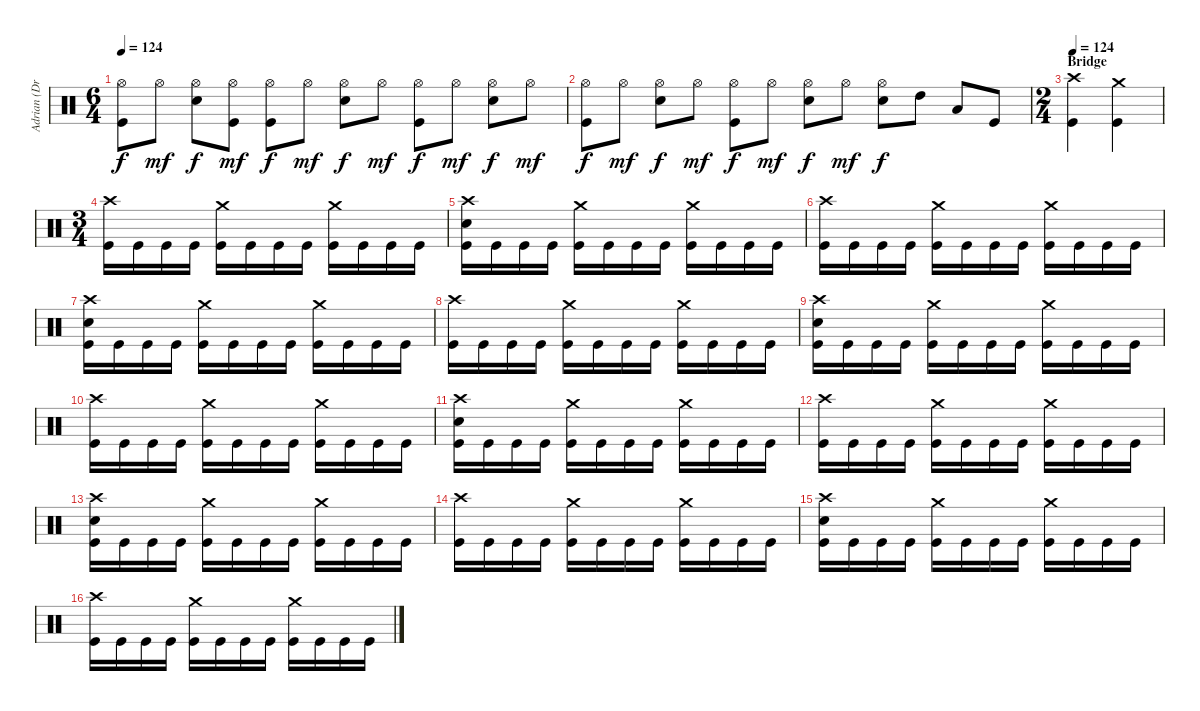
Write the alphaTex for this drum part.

\track ("Adrian (Drums)" "Adrian (Dr") {instrument percussion}
\staff {score}
\articulation defaults
\ts (6 4)
\tempo 124
\clef neutral
\ks c
("Hi-Hat (open)" "Kick (hit)").8{dy f} "Hi-Hat (open)".8{dy mf} ("Hi-Hat (open)" "Electric Snare (hit)").8{dy f} ("Hi-Hat (open)" "Kick (hit)").8{dy mf} ("Hi-Hat (open)" "Kick (hit)").8{dy f} "Hi-Hat (open)".8{dy mf} ("Hi-Hat (open)" "Electric Snare (hit)").8{dy f} "Hi-Hat (open)".8{dy mf} ("Hi-Hat (open)" "Kick (hit)").8{dy f} "Hi-Hat (open)".8{dy mf} ("Hi-Hat (open)" "Electric Snare (hit)").8{dy f} "Hi-Hat (open)".8{dy mf} |
("Hi-Hat (open)" "Kick (hit)").8{dy f} "Hi-Hat (open)".8{dy mf} ("Hi-Hat (open)" "Electric Snare (hit)").8{dy f} "Hi-Hat (open)".8{dy mf} ("Hi-Hat (open)" "Kick (hit)").8{dy f} "Hi-Hat (open)".8{dy mf} ("Hi-Hat (open)" "Electric Snare (hit)").8{dy f} "Hi-Hat (open)".8{dy mf} ("Hi-Hat (open)" "Electric Snare (hit)").8{dy f} "High Tom (hit)".8 "Low Tom (hit)".8 "Kick (hit)".8 |
\ts (2 4)
\section ("" "Bridge")
\tempo 124
("Crash high (hit)" "Kick (hit)").4 ("Crash medium (hit)" "Kick (hit)").4 |
\ts (3 4)
("Crash high (hit)" "Kick (hit)").16 "Kick (hit)".16 "Kick (hit)".16 "Kick (hit)".16 ("Crash medium (hit)" "Kick (hit)").16 "Kick (hit)".16 "Kick (hit)".16 "Kick (hit)".16 ("Crash medium (hit)" "Kick (hit)").16 "Kick (hit)".16 "Kick (hit)".16 "Kick (hit)".16 |
("Crash high (hit)" "Electric Snare (hit)" "Kick (hit)").16 "Kick (hit)".16 "Kick (hit)".16 "Kick (hit)".16 ("Crash medium (hit)" "Kick (hit)").16 "Kick (hit)".16 "Kick (hit)".16 "Kick (hit)".16 ("Crash medium (hit)" "Kick (hit)").16 "Kick (hit)".16 "Kick (hit)".16 "Kick (hit)".16 |
("Crash high (hit)" "Kick (hit)").16 "Kick (hit)".16 "Kick (hit)".16 "Kick (hit)".16 ("Crash medium (hit)" "Kick (hit)").16 "Kick (hit)".16 "Kick (hit)".16 "Kick (hit)".16 ("Crash medium (hit)" "Kick (hit)").16 "Kick (hit)".16 "Kick (hit)".16 "Kick (hit)".16 |
("Crash high (hit)" "Electric Snare (hit)" "Kick (hit)").16 "Kick (hit)".16 "Kick (hit)".16 "Kick (hit)".16 ("Crash medium (hit)" "Kick (hit)").16 "Kick (hit)".16 "Kick (hit)".16 "Kick (hit)".16 ("Crash medium (hit)" "Kick (hit)").16 "Kick (hit)".16 "Kick (hit)".16 "Kick (hit)".16 |
("Crash high (hit)" "Kick (hit)").16 "Kick (hit)".16 "Kick (hit)".16 "Kick (hit)".16 ("Crash medium (hit)" "Kick (hit)").16 "Kick (hit)".16 "Kick (hit)".16 "Kick (hit)".16 ("Crash medium (hit)" "Kick (hit)").16 "Kick (hit)".16 "Kick (hit)".16 "Kick (hit)".16 |
("Crash high (hit)" "Electric Snare (hit)" "Kick (hit)").16 "Kick (hit)".16 "Kick (hit)".16 "Kick (hit)".16 ("Crash medium (hit)" "Kick (hit)").16 "Kick (hit)".16 "Kick (hit)".16 "Kick (hit)".16 ("Crash medium (hit)" "Kick (hit)").16 "Kick (hit)".16 "Kick (hit)".16 "Kick (hit)".16 |
("Crash high (hit)" "Kick (hit)").16 "Kick (hit)".16 "Kick (hit)".16 "Kick (hit)".16 ("Crash medium (hit)" "Kick (hit)").16 "Kick (hit)".16 "Kick (hit)".16 "Kick (hit)".16 ("Crash medium (hit)" "Kick (hit)").16 "Kick (hit)".16 "Kick (hit)".16 "Kick (hit)".16 |
("Crash high (hit)" "Electric Snare (hit)" "Kick (hit)").16 "Kick (hit)".16 "Kick (hit)".16 "Kick (hit)".16 ("Crash medium (hit)" "Kick (hit)").16 "Kick (hit)".16 "Kick (hit)".16 "Kick (hit)".16 ("Crash medium (hit)" "Kick (hit)").16 "Kick (hit)".16 "Kick (hit)".16 "Kick (hit)".16 |
("Crash high (hit)" "Kick (hit)").16 "Kick (hit)".16 "Kick (hit)".16 "Kick (hit)".16 ("Crash medium (hit)" "Kick (hit)").16 "Kick (hit)".16 "Kick (hit)".16 "Kick (hit)".16 ("Crash medium (hit)" "Kick (hit)").16 "Kick (hit)".16 "Kick (hit)".16 "Kick (hit)".16 |
("Crash high (hit)" "Electric Snare (hit)" "Kick (hit)").16 "Kick (hit)".16 "Kick (hit)".16 "Kick (hit)".16 ("Crash medium (hit)" "Kick (hit)").16 "Kick (hit)".16 "Kick (hit)".16 "Kick (hit)".16 ("Crash medium (hit)" "Kick (hit)").16 "Kick (hit)".16 "Kick (hit)".16 "Kick (hit)".16 |
("Crash high (hit)" "Kick (hit)").16 "Kick (hit)".16 "Kick (hit)".16 "Kick (hit)".16 ("Crash medium (hit)" "Kick (hit)").16 "Kick (hit)".16 "Kick (hit)".16 "Kick (hit)".16 ("Crash medium (hit)" "Kick (hit)").16 "Kick (hit)".16 "Kick (hit)".16 "Kick (hit)".16 |
("Crash high (hit)" "Electric Snare (hit)" "Kick (hit)").16 "Kick (hit)".16 "Kick (hit)".16 "Kick (hit)".16 ("Crash medium (hit)" "Kick (hit)").16 "Kick (hit)".16 "Kick (hit)".16 "Kick (hit)".16 ("Crash medium (hit)" "Kick (hit)").16 "Kick (hit)".16 "Kick (hit)".16 "Kick (hit)".16 |
("Crash high (hit)" "Kick (hit)").16 "Kick (hit)".16 "Kick (hit)".16 "Kick (hit)".16 ("Crash medium (hit)" "Kick (hit)").16 "Kick (hit)".16 "Kick (hit)".16 "Kick (hit)".16 ("Crash medium (hit)" "Kick (hit)").16 "Kick (hit)".16 "Kick (hit)".16 "Kick (hit)".16
